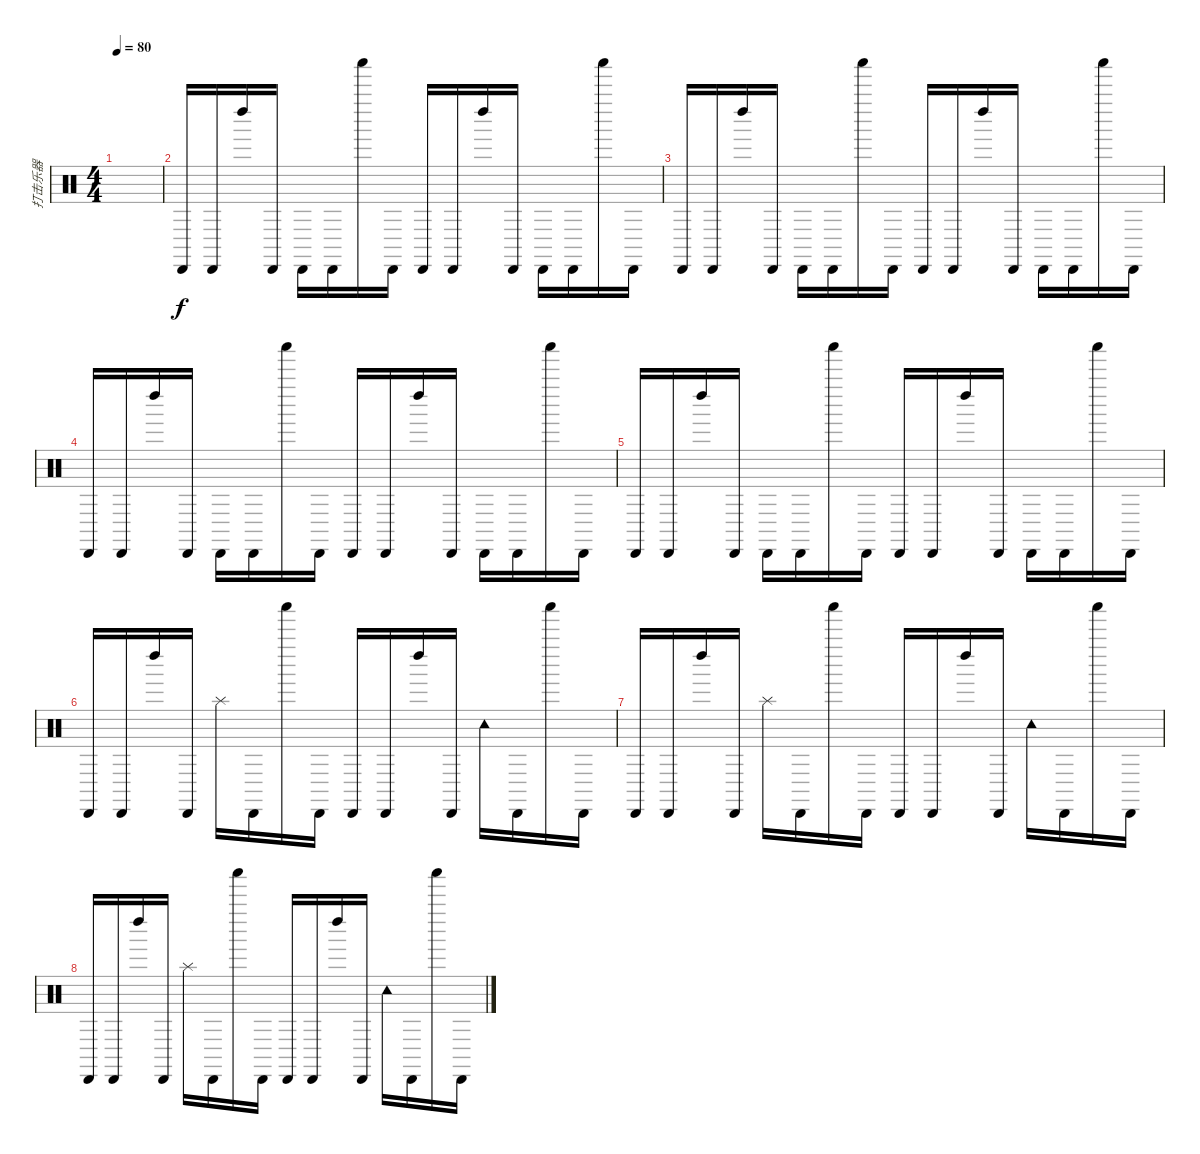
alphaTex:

\track ("打击乐器" "打击乐器") {instrument percussion}
\staff {score}
\articulation defaults
\ts (4 4)
\tempo 80
\clef neutral
\ks c
|
"Cabasa (hit)".16 "Cabasa (hit)".16 "Left Maraca (hit)".16 "Cabasa (hit)".16 "Cabasa (hit)".16 "Cabasa (hit)".16 "Shaker (hit)".16 "Cabasa (hit)".16 "Cabasa (hit)".16 "Cabasa (hit)".16 "Left Maraca (hit)".16 "Cabasa (hit)".16 "Cabasa (hit)".16 "Cabasa (hit)".16 "Shaker (hit)".16 "Cabasa (hit)".16 |
"Cabasa (hit)".16 "Cabasa (hit)".16 "Left Maraca (hit)".16 "Cabasa (hit)".16 "Cabasa (hit)".16 "Cabasa (hit)".16 "Shaker (hit)".16 "Cabasa (hit)".16 "Cabasa (hit)".16 "Cabasa (hit)".16 "Left Maraca (hit)".16 "Cabasa (hit)".16 "Cabasa (hit)".16 "Cabasa (hit)".16 "Shaker (hit)".16 "Cabasa (hit)".16 |
"Cabasa (hit)".16 "Cabasa (hit)".16 "Left Maraca (hit)".16 "Cabasa (hit)".16 "Cabasa (hit)".16 "Cabasa (hit)".16 "Shaker (hit)".16 "Cabasa (hit)".16 "Cabasa (hit)".16 "Cabasa (hit)".16 "Left Maraca (hit)".16 "Cabasa (hit)".16 "Cabasa (hit)".16 "Cabasa (hit)".16 "Shaker (hit)".16 "Cabasa (hit)".16 |
"Cabasa (hit)".16 "Cabasa (hit)".16 "Left Maraca (hit)".16 "Cabasa (hit)".16 "Cabasa (hit)".16 "Cabasa (hit)".16 "Shaker (hit)".16 "Cabasa (hit)".16 "Cabasa (hit)".16 "Cabasa (hit)".16 "Left Maraca (hit)".16 "Cabasa (hit)".16 "Cabasa (hit)".16 "Cabasa (hit)".16 "Shaker (hit)".16 "Cabasa (hit)".16 |
"Cabasa (hit)".16 "Cabasa (hit)".16 "Left Maraca (hit)".16 "Cabasa (hit)".16 "Splash (hit)".16 "Cabasa (hit)".16 "Shaker (hit)".16 "Cabasa (hit)".16 "Cabasa (hit)".16 "Cabasa (hit)".16 "Left Maraca (hit)".16 "Cabasa (hit)".16 "Tambourine (hit)".16 "Cabasa (hit)".16 "Shaker (hit)".16 "Cabasa (hit)".16 |
"Cabasa (hit)".16 "Cabasa (hit)".16 "Left Maraca (hit)".16 "Cabasa (hit)".16 "Splash (hit)".16 "Cabasa (hit)".16 "Shaker (hit)".16 "Cabasa (hit)".16 "Cabasa (hit)".16 "Cabasa (hit)".16 "Left Maraca (hit)".16 "Cabasa (hit)".16 "Tambourine (hit)".16 "Cabasa (hit)".16 "Shaker (hit)".16 "Cabasa (hit)".16 |
"Cabasa (hit)".16 "Cabasa (hit)".16 "Left Maraca (hit)".16 "Cabasa (hit)".16 "Splash (hit)".16 "Cabasa (hit)".16 "Shaker (hit)".16 "Cabasa (hit)".16 "Cabasa (hit)".16 "Cabasa (hit)".16 "Left Maraca (hit)".16 "Cabasa (hit)".16 "Tambourine (hit)".16 "Cabasa (hit)".16 "Shaker (hit)".16 "Cabasa (hit)".16
